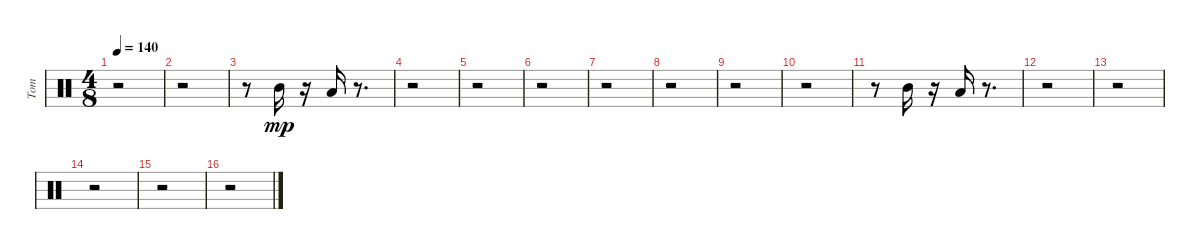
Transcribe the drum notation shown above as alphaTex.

\track ("Tom" "Tom") {instrument percussion}
\staff {score}
\articulation defaults
\ts (4 8)
\tempo 140
\clef neutral
\ks c
r.2{dy mp} |
r.2 |
r.8 "Mid Tom (hit)".16 r.16 "Low Tom (hit)".16 r.8{d} |
r.2 |
r.2 |
r.2 |
r.2 |
r.2 |
r.2 |
r.2 |
r.8 "Mid Tom (hit)".16 r.16 "Low Tom (hit)".16 r.8{d} |
r.2 |
r.2 |
r.2 |
r.2 |
r.2
